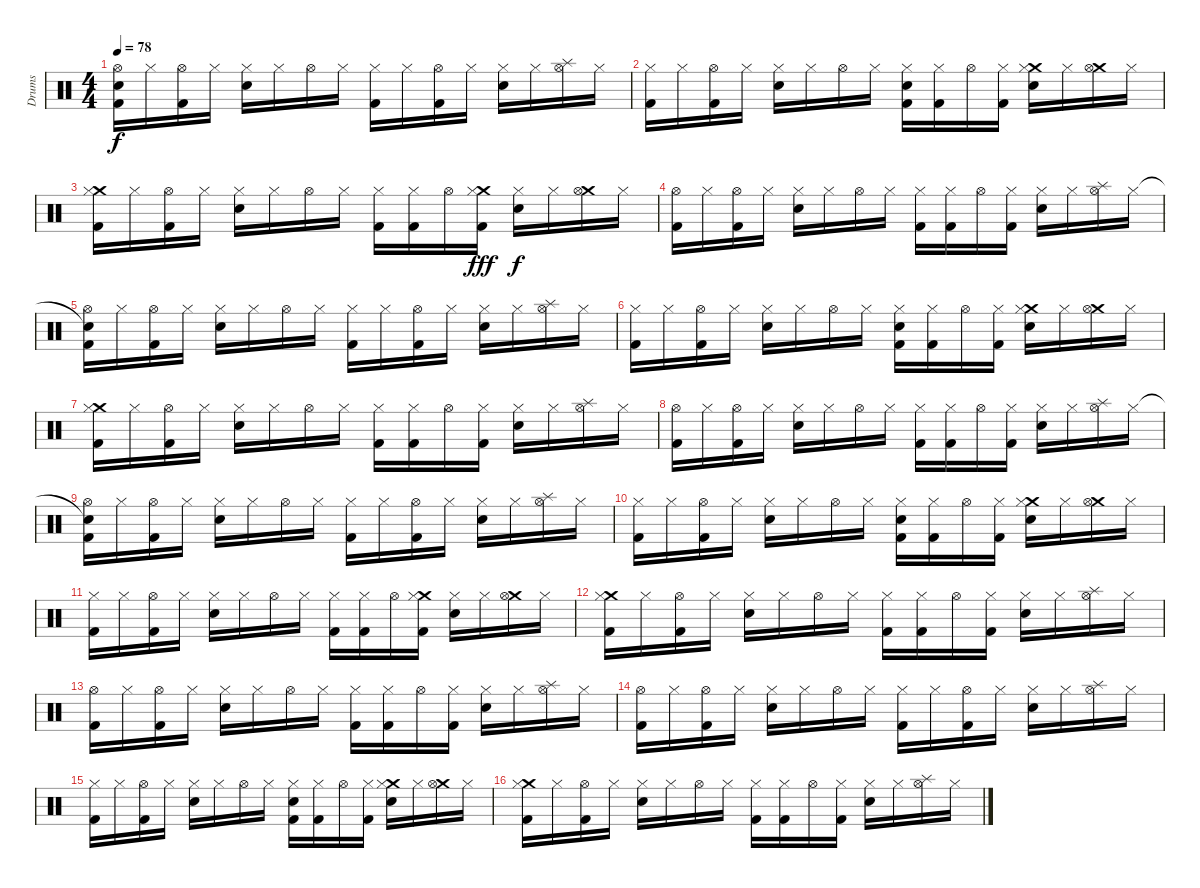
\track ("Drums" "Drums") {instrument percussion}
\staff {score}
\articulation defaults
\ts (4 4)
\tempo 78
\clef neutral
\ks c
("Snare (hit)"{t} "Hi-Hat (open)" "Kick (hit) 2").16{dy f} "Hi-Hat (closed)".16 ("Hi-Hat (open)" "Kick (hit) 2").16 "Hi-Hat (closed)".16 ("Hi-Hat (closed)" "Snare (hit) 2").16 "Hi-Hat (closed)".16 "Hi-Hat (open)".16 "Hi-Hat (closed)".16 ("Hi-Hat (closed)" "Kick (hit) 2").16 "Hi-Hat (closed)".16 ("Hi-Hat (open)" "Kick (hit) 2").16 "Hi-Hat (closed)".16 ("Hi-Hat (closed)" "Snare (hit) 2").16 "Hi-Hat (closed)".16 ("Splash (hit)" "Hi-Hat (open)").16 "Hi-Hat (closed)".16 |
("Hi-Hat (closed)" "Kick (hit) 2").16 "Hi-Hat (closed)".16 ("Hi-Hat (open)" "Kick (hit) 2").16 "Hi-Hat (closed)".16 ("Hi-Hat (closed)" "Snare (hit) 2").16 "Hi-Hat (closed)".16 "Hi-Hat (open)".16 "Hi-Hat (closed)".16 ("Hi-Hat (closed)" "Snare (hit) 2" "Kick (hit) 2").16 ("Hi-Hat (closed)" "Kick (hit) 2").16 "Hi-Hat (open)".16 ("Hi-Hat (closed)" "Kick (hit) 2").16 ("Crash medium (hit)" "Hi-Hat (closed)" "Snare (hit) 2").16 "Hi-Hat (closed)".16 ("Crash medium (hit)" "Hi-Hat (open)").16 "Hi-Hat (closed)".16 |
("Crash medium (hit)" "Hi-Hat (closed)" "Kick (hit) 2").16 "Hi-Hat (closed)".16 ("Hi-Hat (open)" "Kick (hit) 2").16 "Hi-Hat (closed)".16 ("Hi-Hat (closed)" "Snare (hit) 2").16 "Hi-Hat (closed)".16 "Hi-Hat (open)".16 "Hi-Hat (closed)".16 ("Hi-Hat (closed)" "Kick (hit) 2").16 ("Hi-Hat (closed)" "Kick (hit) 2").16 "Hi-Hat (open)".16 ("Crash medium (hit)" "Hi-Hat (closed)" "Kick (hit) 2").16{dy fff} ("Hi-Hat (closed)" "Snare (hit) 2").16{dy f} "Hi-Hat (closed)".16 ("Crash medium (hit)" "Hi-Hat (open)").16 "Hi-Hat (closed)".16 |
("Hi-Hat (open)" "Kick (hit) 2").16 "Hi-Hat (closed)".16 ("Hi-Hat (open)" "Kick (hit) 2").16 "Hi-Hat (closed)".16 ("Hi-Hat (closed)" "Snare (hit) 2").16 "Hi-Hat (closed)".16 "Hi-Hat (open)".16 "Hi-Hat (closed)".16 ("Hi-Hat (closed)" "Kick (hit) 2").16 ("Hi-Hat (closed)" "Kick (hit) 2").16 "Hi-Hat (open)".16 ("Hi-Hat (closed)" "Kick (hit) 2").16 ("Hi-Hat (closed)" "Snare (hit) 2").16 "Hi-Hat (closed)".16 ("Splash (hit)" "Hi-Hat (open)").16 "Hi-Hat (closed)".16 |
("Snare (hit)"{t} "Hi-Hat (open)" "Kick (hit) 2").16 "Hi-Hat (closed)".16 ("Hi-Hat (open)" "Kick (hit) 2").16 "Hi-Hat (closed)".16 ("Hi-Hat (closed)" "Snare (hit) 2").16 "Hi-Hat (closed)".16 "Hi-Hat (open)".16 "Hi-Hat (closed)".16 ("Hi-Hat (closed)" "Kick (hit) 2").16 "Hi-Hat (closed)".16 ("Hi-Hat (open)" "Kick (hit) 2").16 "Hi-Hat (closed)".16 ("Hi-Hat (closed)" "Snare (hit) 2").16 "Hi-Hat (closed)".16 ("Splash (hit)" "Hi-Hat (open)").16 "Hi-Hat (closed)".16 |
("Hi-Hat (closed)" "Kick (hit) 2").16 "Hi-Hat (closed)".16 ("Hi-Hat (open)" "Kick (hit) 2").16 "Hi-Hat (closed)".16 ("Hi-Hat (closed)" "Snare (hit) 2").16 "Hi-Hat (closed)".16 "Hi-Hat (open)".16 "Hi-Hat (closed)".16 ("Hi-Hat (closed)" "Snare (hit) 2" "Kick (hit) 2").16 ("Hi-Hat (closed)" "Kick (hit) 2").16 "Hi-Hat (open)".16 ("Hi-Hat (closed)" "Kick (hit) 2").16 ("Crash medium (hit)" "Hi-Hat (closed)" "Snare (hit) 2").16 "Hi-Hat (closed)".16 ("Crash medium (hit)" "Hi-Hat (open)").16 "Hi-Hat (closed)".16 |
("Crash medium (hit)" "Hi-Hat (closed)" "Kick (hit) 2").16 "Hi-Hat (closed)".16 ("Hi-Hat (open)" "Kick (hit) 2").16 "Hi-Hat (closed)".16 ("Hi-Hat (closed)" "Snare (hit) 2").16 "Hi-Hat (closed)".16 "Hi-Hat (open)".16 "Hi-Hat (closed)".16 ("Hi-Hat (closed)" "Kick (hit) 2").16 ("Hi-Hat (closed)" "Kick (hit) 2").16 "Hi-Hat (open)".16 ("Hi-Hat (closed)" "Kick (hit) 2").16 ("Hi-Hat (closed)" "Snare (hit) 2").16 "Hi-Hat (closed)".16 ("Splash (hit)" "Hi-Hat (open)").16 "Hi-Hat (closed)".16 |
("Hi-Hat (open)" "Kick (hit) 2").16 "Hi-Hat (closed)".16 ("Hi-Hat (open)" "Kick (hit) 2").16 "Hi-Hat (closed)".16 ("Hi-Hat (closed)" "Snare (hit) 2").16 "Hi-Hat (closed)".16 "Hi-Hat (open)".16 "Hi-Hat (closed)".16 ("Hi-Hat (closed)" "Kick (hit) 2").16 ("Hi-Hat (closed)" "Kick (hit) 2").16 "Hi-Hat (open)".16 ("Hi-Hat (closed)" "Kick (hit) 2").16 ("Hi-Hat (closed)" "Snare (hit) 2").16 "Hi-Hat (closed)".16 ("Splash (hit)" "Hi-Hat (open)").16 "Hi-Hat (closed)".16 |
("Snare (hit)"{t} "Hi-Hat (open)" "Kick (hit) 2").16 "Hi-Hat (closed)".16 ("Hi-Hat (open)" "Kick (hit) 2").16 "Hi-Hat (closed)".16 ("Hi-Hat (closed)" "Snare (hit) 2").16 "Hi-Hat (closed)".16 "Hi-Hat (open)".16 "Hi-Hat (closed)".16 ("Hi-Hat (closed)" "Kick (hit) 2").16 "Hi-Hat (closed)".16 ("Hi-Hat (open)" "Kick (hit) 2").16 "Hi-Hat (closed)".16 ("Hi-Hat (closed)" "Snare (hit) 2").16 "Hi-Hat (closed)".16 ("Splash (hit)" "Hi-Hat (open)").16 "Hi-Hat (closed)".16 |
("Hi-Hat (closed)" "Kick (hit) 2").16 "Hi-Hat (closed)".16 ("Hi-Hat (open)" "Kick (hit) 2").16 "Hi-Hat (closed)".16 ("Hi-Hat (closed)" "Snare (hit) 2").16 "Hi-Hat (closed)".16 "Hi-Hat (open)".16 "Hi-Hat (closed)".16 ("Hi-Hat (closed)" "Snare (hit) 2" "Kick (hit) 2").16 ("Hi-Hat (closed)" "Kick (hit) 2").16 "Hi-Hat (open)".16 ("Hi-Hat (closed)" "Kick (hit) 2").16 ("Crash medium (hit)" "Hi-Hat (closed)" "Snare (hit) 2").16 "Hi-Hat (closed)".16 ("Crash medium (hit)" "Hi-Hat (open)").16 "Hi-Hat (closed)".16 |
("Hi-Hat (closed)" "Kick (hit) 2").16 "Hi-Hat (closed)".16 ("Hi-Hat (open)" "Kick (hit) 2").16 "Hi-Hat (closed)".16 ("Hi-Hat (closed)" "Snare (hit) 2").16 "Hi-Hat (closed)".16 "Hi-Hat (open)".16 "Hi-Hat (closed)".16 ("Hi-Hat (closed)" "Kick (hit) 2").16 ("Hi-Hat (closed)" "Kick (hit) 2").16 "Hi-Hat (open)".16 ("Crash medium (hit)" "Hi-Hat (closed)" "Kick (hit) 2").16 ("Hi-Hat (closed)" "Snare (hit) 2").16 "Hi-Hat (closed)".16 ("Crash medium (hit)" "Hi-Hat (open)").16 "Hi-Hat (closed)".16 |
("Crash medium (hit)" "Hi-Hat (closed)" "Kick (hit) 2").16 "Hi-Hat (closed)".16 ("Hi-Hat (open)" "Kick (hit) 2").16 "Hi-Hat (closed)".16 ("Hi-Hat (closed)" "Snare (hit) 2").16 "Hi-Hat (closed)".16 "Hi-Hat (open)".16 "Hi-Hat (closed)".16 ("Hi-Hat (closed)" "Kick (hit) 2").16 ("Hi-Hat (closed)" "Kick (hit) 2").16 "Hi-Hat (open)".16 ("Hi-Hat (closed)" "Kick (hit) 2").16 ("Hi-Hat (closed)" "Snare (hit) 2").16 "Hi-Hat (closed)".16 ("Splash (hit)" "Hi-Hat (open)").16 "Hi-Hat (closed)".16 |
("Hi-Hat (open)" "Kick (hit) 2").16 "Hi-Hat (closed)".16 ("Hi-Hat (open)" "Kick (hit) 2").16 "Hi-Hat (closed)".16 ("Hi-Hat (closed)" "Snare (hit) 2").16 "Hi-Hat (closed)".16 "Hi-Hat (open)".16 "Hi-Hat (closed)".16 ("Hi-Hat (closed)" "Kick (hit) 2").16 ("Hi-Hat (closed)" "Kick (hit) 2").16 "Hi-Hat (open)".16 ("Hi-Hat (closed)" "Kick (hit) 2").16 ("Hi-Hat (closed)" "Snare (hit) 2").16 "Hi-Hat (closed)".16 ("Splash (hit)" "Hi-Hat (open)").16 "Hi-Hat (closed)".16 |
("Hi-Hat (open)" "Kick (hit) 2").16 "Hi-Hat (closed)".16 ("Hi-Hat (open)" "Kick (hit) 2").16 "Hi-Hat (closed)".16 ("Hi-Hat (closed)" "Snare (hit) 2").16 "Hi-Hat (closed)".16 "Hi-Hat (open)".16 "Hi-Hat (closed)".16 ("Hi-Hat (closed)" "Kick (hit) 2").16 "Hi-Hat (closed)".16 ("Hi-Hat (open)" "Kick (hit) 2").16 "Hi-Hat (closed)".16 ("Hi-Hat (closed)" "Snare (hit) 2").16 "Hi-Hat (closed)".16 ("Splash (hit)" "Hi-Hat (open)").16 "Hi-Hat (closed)".16 |
("Hi-Hat (closed)" "Kick (hit) 2").16 "Hi-Hat (closed)".16 ("Hi-Hat (open)" "Kick (hit) 2").16 "Hi-Hat (closed)".16 ("Hi-Hat (closed)" "Snare (hit) 2").16 "Hi-Hat (closed)".16 "Hi-Hat (open)".16 "Hi-Hat (closed)".16 ("Hi-Hat (closed)" "Snare (hit) 2" "Kick (hit) 2").16 ("Hi-Hat (closed)" "Kick (hit) 2").16 "Hi-Hat (open)".16 ("Hi-Hat (closed)" "Kick (hit) 2").16 ("Crash medium (hit)" "Hi-Hat (closed)" "Snare (hit) 2").16 "Hi-Hat (closed)".16 ("Crash medium (hit)" "Hi-Hat (open)").16 "Hi-Hat (closed)".16 |
("Crash medium (hit)" "Hi-Hat (closed)" "Kick (hit) 2").16 "Hi-Hat (closed)".16 ("Hi-Hat (open)" "Kick (hit) 2").16 "Hi-Hat (closed)".16 ("Hi-Hat (closed)" "Snare (hit) 2").16 "Hi-Hat (closed)".16 "Hi-Hat (open)".16 "Hi-Hat (closed)".16 ("Hi-Hat (closed)" "Kick (hit) 2").16 ("Hi-Hat (closed)" "Kick (hit) 2").16 "Hi-Hat (open)".16 ("Hi-Hat (closed)" "Kick (hit) 2").16 ("Hi-Hat (closed)" "Snare (hit) 2").16 "Hi-Hat (closed)".16 ("Splash (hit)" "Hi-Hat (open)").16 "Hi-Hat (closed)".16
